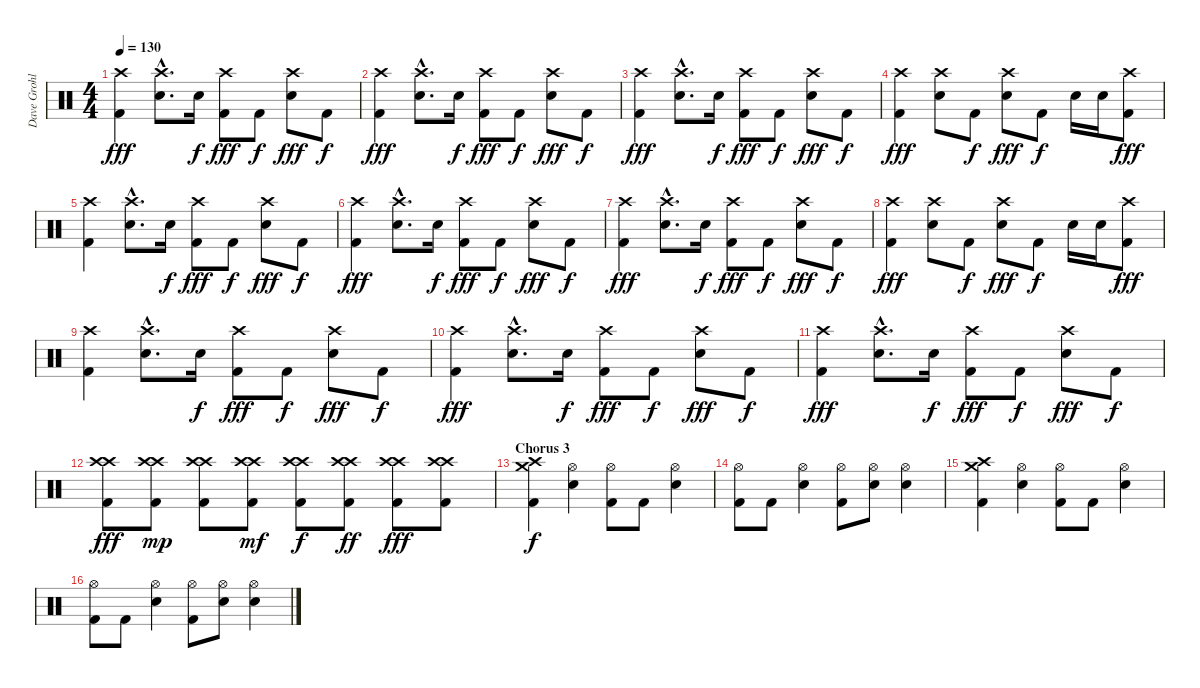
\track ("Dave Grohl" "Dave Grohl") {instrument percussion}
\staff {score}
\articulation defaults
\ts (4 4)
\tempo 130
\clef neutral
\ks c
("Crash high (hit)" "Kick (hit) 2").4{dy fff} ("Crash high (hit)"{hac} "Electric Snare (hit)"{hac}).8{d} "Electric Snare (hit)".16{dy f} ("Crash high (hit)" "Kick (hit) 2").8{dy fff} "Kick (hit) 2".8{dy f} ("Crash high (hit)" "Electric Snare (hit)").8{dy fff} "Kick (hit) 2".8{dy f} |
("Crash high (hit)" "Kick (hit) 2").4{dy fff} ("Crash high (hit)"{hac} "Electric Snare (hit)"{hac}).8{d} "Electric Snare (hit)".16{dy f} ("Crash high (hit)" "Kick (hit) 2").8{dy fff} "Kick (hit) 2".8{dy f} ("Crash high (hit)" "Electric Snare (hit)").8{dy fff} "Kick (hit) 2".8{dy f} |
("Crash high (hit)" "Kick (hit) 2").4{dy fff} ("Crash high (hit)"{hac} "Electric Snare (hit)"{hac}).8{d} "Electric Snare (hit)".16{dy f} ("Crash high (hit)" "Kick (hit) 2").8{dy fff} "Kick (hit) 2".8{dy f} ("Crash high (hit)" "Electric Snare (hit)").8{dy fff} "Kick (hit) 2".8{dy f} |
("Crash high (hit)" "Kick (hit) 2").4{dy fff} ("Crash high (hit)" "Electric Snare (hit)").8 "Kick (hit) 2".8{dy f} ("Crash high (hit)" "Electric Snare (hit)").8{dy fff} "Kick (hit) 2".8{dy f} "Electric Snare (hit)".16 "Electric Snare (hit)".16 ("Crash high (hit)" "Kick (hit) 2").8{dy fff} |
("Crash high (hit)" "Kick (hit) 2").4 ("Crash high (hit)"{hac} "Electric Snare (hit)"{hac}).8{d} "Electric Snare (hit)".16{dy f} ("Crash high (hit)" "Kick (hit) 2").8{dy fff} "Kick (hit) 2".8{dy f} ("Crash high (hit)" "Electric Snare (hit)").8{dy fff} "Kick (hit) 2".8{dy f} |
("Crash high (hit)" "Kick (hit) 2").4{dy fff} ("Crash high (hit)"{hac} "Electric Snare (hit)"{hac}).8{d} "Electric Snare (hit)".16{dy f} ("Crash high (hit)" "Kick (hit) 2").8{dy fff} "Kick (hit) 2".8{dy f} ("Crash high (hit)" "Electric Snare (hit)").8{dy fff} "Kick (hit) 2".8{dy f} |
("Crash high (hit)" "Kick (hit) 2").4{dy fff} ("Crash high (hit)"{hac} "Electric Snare (hit)"{hac}).8{d} "Electric Snare (hit)".16{dy f} ("Crash high (hit)" "Kick (hit) 2").8{dy fff} "Kick (hit) 2".8{dy f} ("Crash high (hit)" "Electric Snare (hit)").8{dy fff} "Kick (hit) 2".8{dy f} |
("Crash high (hit)" "Kick (hit) 2").4{dy fff} ("Crash high (hit)" "Electric Snare (hit)").8 "Kick (hit) 2".8{dy f} ("Crash high (hit)" "Electric Snare (hit)").8{dy fff} "Kick (hit) 2".8{dy f} "Electric Snare (hit)".16 "Electric Snare (hit)".16 ("Crash high (hit)" "Kick (hit) 2").8{dy fff} |
("Crash high (hit)" "Kick (hit) 2").4 ("Crash high (hit)"{hac} "Electric Snare (hit)"{hac}).8{d} "Electric Snare (hit)".16{dy f} ("Crash high (hit)" "Kick (hit) 2").8{dy fff} "Kick (hit) 2".8{dy f} ("Crash high (hit)" "Electric Snare (hit)").8{dy fff} "Kick (hit) 2".8{dy f} |
("Crash high (hit)" "Kick (hit) 2").4{dy fff} ("Crash high (hit)"{hac} "Electric Snare (hit)"{hac}).8{d} "Electric Snare (hit)".16{dy f} ("Crash high (hit)" "Kick (hit) 2").8{dy fff} "Kick (hit) 2".8{dy f} ("Crash high (hit)" "Electric Snare (hit)").8{dy fff} "Kick (hit) 2".8{dy f} |
("Crash high (hit)" "Kick (hit) 2").4{dy fff} ("Crash high (hit)"{hac} "Electric Snare (hit)"{hac}).8{d} "Electric Snare (hit)".16{dy f} ("Crash high (hit)" "Kick (hit) 2").8{dy fff} "Kick (hit) 2".8{dy f} ("Crash high (hit)" "Electric Snare (hit)").8{dy fff} "Kick (hit) 2".8{dy f} |
("Crash high (hit)" "Crash high (hit)" "Kick (hit) 2").8{dy fff} ("Crash high (hit)" "Crash high (hit)" "Kick (hit) 2").8{dy mp} ("Crash high (hit)" "Crash high (hit)" "Kick (hit) 2").8 ("Crash high (hit)" "Crash high (hit)" "Kick (hit) 2").8{dy mf} ("Crash high (hit)" "Crash high (hit)" "Kick (hit) 2").8{dy f} ("Crash high (hit)" "Crash high (hit)" "Kick (hit) 2").8{dy ff} ("Crash high (hit)" "Crash high (hit)" "Kick (hit) 2").8{dy fff} ("Crash high (hit)" "Crash high (hit)" "Kick (hit) 2").8 |
\section ("" "Chorus 3")
("Crash high (hit)" "Crash medium (hit)" "Kick (hit) 2").4{dy f} ("Hi-Hat (open)" "Electric Snare (hit)").4 ("Hi-Hat (open)" "Kick (hit) 2").8 "Kick (hit) 2".8 ("Hi-Hat (open)" "Electric Snare (hit)").4 |
("Hi-Hat (open)" "Kick (hit) 2").8 "Kick (hit) 2".8 ("Hi-Hat (open)" "Electric Snare (hit)").4 ("Hi-Hat (open)" "Kick (hit) 2").8 ("Hi-Hat (open)" "Electric Snare (hit)").8 ("Hi-Hat (open)" "Electric Snare (hit)").4 |
("Crash high (hit)" "Crash medium (hit)" "Kick (hit) 2").4 ("Hi-Hat (open)" "Electric Snare (hit)").4 ("Hi-Hat (open)" "Kick (hit) 2").8 "Kick (hit) 2".8 ("Hi-Hat (open)" "Electric Snare (hit)").4 |
("Hi-Hat (open)" "Kick (hit) 2").8 "Kick (hit) 2".8 ("Hi-Hat (open)" "Electric Snare (hit)").4 ("Hi-Hat (open)" "Kick (hit) 2").8 ("Hi-Hat (open)" "Electric Snare (hit)").8 ("Hi-Hat (open)" "Electric Snare (hit)").4
